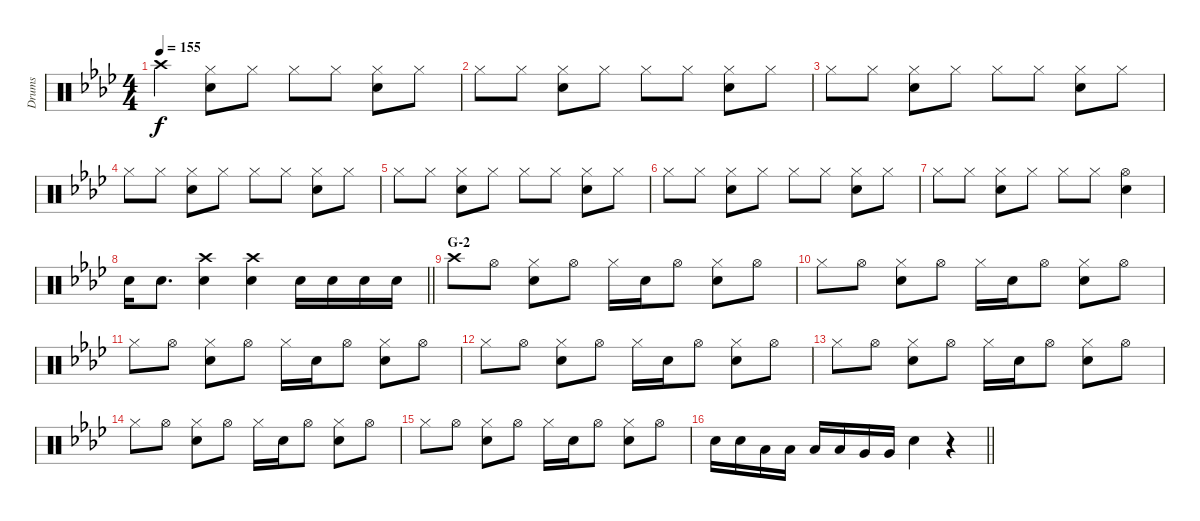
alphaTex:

\track ("Drums" "Drums") {instrument percussion}
\staff {score}
\articulation defaults
\ts (4 4)
\tempo 155
\clef neutral
\ks ab "Crash high (hit)".4{dy f}
("Hi-Hat (closed)" "Snare (hit) 2").8 "Hi-Hat (closed)".8 "Hi-Hat (closed)".8 "Hi-Hat (closed)".8 ("Hi-Hat (closed)" "Snare (hit) 2").8 "Hi-Hat (closed)".8 |
"Hi-Hat (closed)".8 "Hi-Hat (closed)".8 ("Hi-Hat (closed)" "Snare (hit) 2").8 "Hi-Hat (closed)".8 "Hi-Hat (closed)".8 "Hi-Hat (closed)".8 ("Hi-Hat (closed)" "Snare (hit) 2").8 "Hi-Hat (closed)".8 |
"Hi-Hat (closed)".8 "Hi-Hat (closed)".8 ("Hi-Hat (closed)" "Snare (hit) 2").8 "Hi-Hat (closed)".8 "Hi-Hat (closed)".8 "Hi-Hat (closed)".8 ("Hi-Hat (closed)" "Snare (hit) 2").8 "Hi-Hat (closed)".8 |
"Hi-Hat (closed)".8 "Hi-Hat (closed)".8 ("Hi-Hat (closed)" "Snare (hit) 2").8 "Hi-Hat (closed)".8 "Hi-Hat (closed)".8 "Hi-Hat (closed)".8 ("Hi-Hat (closed)" "Snare (hit) 2").8 "Hi-Hat (closed)".8 |
"Hi-Hat (closed)".8 "Hi-Hat (closed)".8 ("Hi-Hat (closed)" "Snare (hit) 2").8 "Hi-Hat (closed)".8 "Hi-Hat (closed)".8 "Hi-Hat (closed)".8 ("Hi-Hat (closed)" "Snare (hit) 2").8 "Hi-Hat (closed)".8 |
"Hi-Hat (closed)".8 "Hi-Hat (closed)".8 ("Hi-Hat (closed)" "Snare (hit) 2").8 "Hi-Hat (closed)".8 "Hi-Hat (closed)".8 "Hi-Hat (closed)".8 ("Hi-Hat (closed)" "Snare (hit) 2").8 "Hi-Hat (closed)".8 |
"Hi-Hat (closed)".8 "Hi-Hat (closed)".8 ("Hi-Hat (closed)" "Snare (hit) 2").8 "Hi-Hat (closed)".8 "Hi-Hat (closed)".8 "Hi-Hat (closed)".8 ("Hi-Hat (open)" "Snare (hit) 2").4 |
\barLineRight lightlight "Snare (hit) 2".16 "Snare (hit) 2".8{d}
("Snare (hit) 2" "Crash high (hit)").4 ("Snare (hit) 2" "Crash high (hit)").4 "Snare (hit) 2".16 "Snare (hit) 2".16 "Snare (hit) 2".16 "Snare (hit) 2".16 |
\section ("" "G-2")
"Crash high (hit)".8 "Hi-Hat (open)".8 ("Hi-Hat (closed)" "Snare (hit) 2").8 "Hi-Hat (open)".8 "Hi-Hat (closed)".16 "Snare (hit) 2".16 "Hi-Hat (open)".8 ("Hi-Hat (closed)" "Snare (hit) 2").8 "Hi-Hat (open)".8 |
"Hi-Hat (closed)".8 "Hi-Hat (open)".8 ("Hi-Hat (closed)" "Snare (hit) 2").8 "Hi-Hat (open)".8 "Hi-Hat (closed)".16 "Snare (hit) 2".16 "Hi-Hat (open)".8 ("Hi-Hat (closed)" "Snare (hit) 2").8 "Hi-Hat (open)".8 |
"Hi-Hat (closed)".8 "Hi-Hat (open)".8 ("Hi-Hat (closed)" "Snare (hit) 2").8 "Hi-Hat (open)".8 "Hi-Hat (closed)".16 "Snare (hit) 2".16 "Hi-Hat (open)".8 ("Hi-Hat (closed)" "Snare (hit) 2").8 "Hi-Hat (open)".8 |
"Hi-Hat (closed)".8 "Hi-Hat (open)".8 ("Hi-Hat (closed)" "Snare (hit) 2").8 "Hi-Hat (open)".8 "Hi-Hat (closed)".16 "Snare (hit) 2".16 "Hi-Hat (open)".8 ("Hi-Hat (closed)" "Snare (hit) 2").8 "Hi-Hat (open)".8 |
"Hi-Hat (closed)".8 "Hi-Hat (open)".8 ("Hi-Hat (closed)" "Snare (hit) 2").8 "Hi-Hat (open)".8 "Hi-Hat (closed)".16 "Snare (hit) 2".16 "Hi-Hat (open)".8 ("Hi-Hat (closed)" "Snare (hit) 2").8 "Hi-Hat (open)".8 |
"Hi-Hat (closed)".8 "Hi-Hat (open)".8 ("Hi-Hat (closed)" "Snare (hit) 2").8 "Hi-Hat (open)".8 "Hi-Hat (closed)".16 "Snare (hit) 2".16 "Hi-Hat (open)".8 ("Hi-Hat (closed)" "Snare (hit) 2").8 "Hi-Hat (open)".8 |
"Hi-Hat (closed)".8 "Hi-Hat (open)".8 ("Hi-Hat (closed)" "Snare (hit) 2").8 "Hi-Hat (open)".8 "Hi-Hat (closed)".16 "Snare (hit) 2".16 "Hi-Hat (open)".8 ("Hi-Hat (closed)" "Snare (hit) 2").8 "Hi-Hat (open)".8 |
\barLineRight lightlight "Snare (hit) 2".16 "Snare (hit) 2".16 "Low Tom (hit)".16 "Low Tom (hit)".16 "Low Tom (hit)".16 "Low Tom (hit)".16 "Very Low Tom (hit)".16 "Very Low Tom (hit)".16 "Snare (hit) 2".4
r.4
